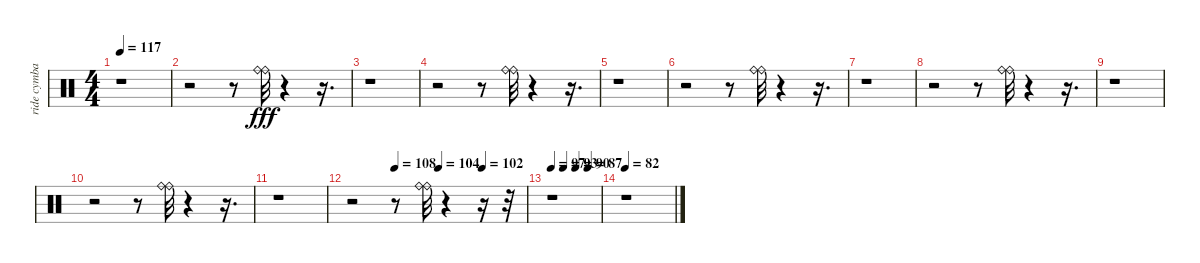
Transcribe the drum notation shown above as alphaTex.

\track ("ride cymbal" "ride cymba") {instrument percussion}
\staff {score}
\articulation defaults
\ts (4 4)
\tempo 117
\clef neutral
\ks c
r.1{dy fff} |
r.2 r.8 ("Ride (bell)" "Ride (bell)").32 r.4 r.16{d} |
r.1 |
r.2 r.8 ("Ride (bell)" "Ride (bell)").32 r.4 r.16{d} |
r.1 |
r.2 r.8 ("Ride (bell)" "Ride (bell)").32 r.4 r.16{d} |
r.1 |
r.2 r.8 ("Ride (bell)" "Ride (bell)").32 r.4 r.16{d} |
r.1 |
r.2 r.8 ("Ride (bell)" "Ride (bell)").32 r.4 r.16{d} |
r.1 |
\tempo (108 0.25)
\tempo (104 0.5)
\tempo (102 0.75)
r.2 r.8 ("Ride (bell)" "Ride (bell)").32 r.4 r.16 r.32 |
\tempo 97
\tempo (93 0.25)
\tempo (90 0.5)
\tempo (87 0.75)
r.1 |
\tempo 82
r.1
